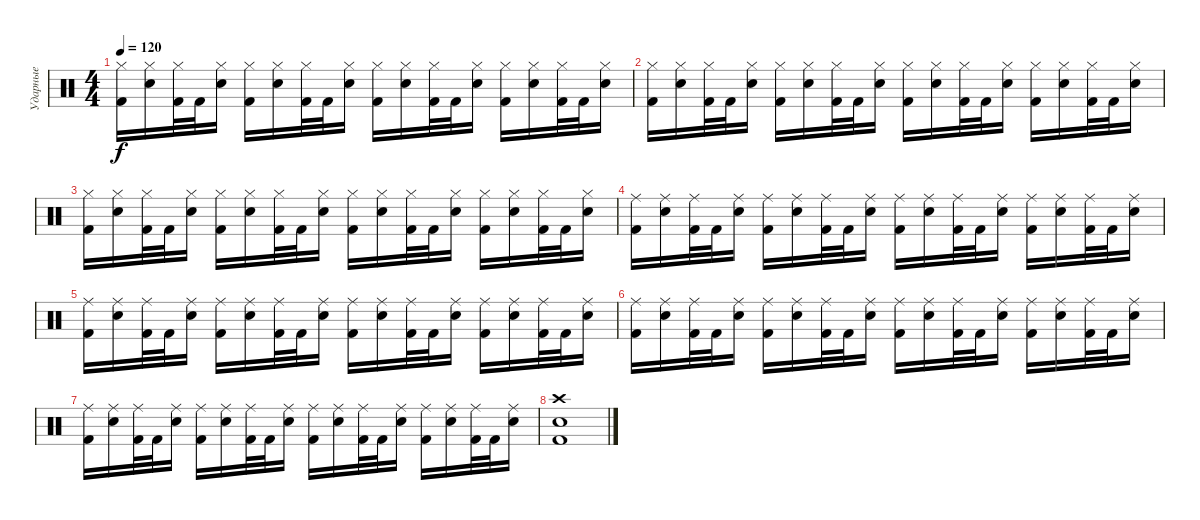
\track ("Ударные" "Ударные") {instrument percussion}
\staff {score}
\articulation defaults
\ts (4 4)
\tempo 120
\clef neutral
\ks c
("Hi-Hat (closed)" "Kick (hit) 2").16{dy f} ("Hi-Hat (closed)" "Electric Snare (hit)").16 ("Hi-Hat (closed)" "Kick (hit) 2").32 "Kick (hit) 2".32 ("Hi-Hat (closed)" "Electric Snare (hit)").16 ("Hi-Hat (closed)" "Kick (hit) 2").16 ("Hi-Hat (closed)" "Electric Snare (hit)").16 ("Hi-Hat (closed)" "Kick (hit) 2").32 "Kick (hit) 2".32 ("Hi-Hat (closed)" "Electric Snare (hit)").16 ("Hi-Hat (closed)" "Kick (hit) 2").16 ("Hi-Hat (closed)" "Electric Snare (hit)").16 ("Hi-Hat (closed)" "Kick (hit) 2").32 "Kick (hit) 2".32 ("Hi-Hat (closed)" "Electric Snare (hit)").16 ("Hi-Hat (closed)" "Kick (hit) 2").16 ("Hi-Hat (closed)" "Electric Snare (hit)").16 ("Hi-Hat (closed)" "Kick (hit) 2").32 "Kick (hit) 2".32 ("Hi-Hat (closed)" "Electric Snare (hit)").16 |
("Hi-Hat (closed)" "Kick (hit) 2").16 ("Hi-Hat (closed)" "Electric Snare (hit)").16 ("Hi-Hat (closed)" "Kick (hit) 2").32 "Kick (hit) 2".32 ("Hi-Hat (closed)" "Electric Snare (hit)").16 ("Hi-Hat (closed)" "Kick (hit) 2").16 ("Hi-Hat (closed)" "Electric Snare (hit)").16 ("Hi-Hat (closed)" "Kick (hit) 2").32 "Kick (hit) 2".32 ("Hi-Hat (closed)" "Electric Snare (hit)").16 ("Hi-Hat (closed)" "Kick (hit) 2").16 ("Hi-Hat (closed)" "Electric Snare (hit)").16 ("Hi-Hat (closed)" "Kick (hit) 2").32 "Kick (hit) 2".32 ("Hi-Hat (closed)" "Electric Snare (hit)").16 ("Hi-Hat (closed)" "Kick (hit) 2").16 ("Hi-Hat (closed)" "Electric Snare (hit)").16 ("Hi-Hat (closed)" "Kick (hit) 2").32 "Kick (hit) 2".32 ("Hi-Hat (closed)" "Electric Snare (hit)").16 |
("Hi-Hat (closed)" "Kick (hit) 2").16 ("Hi-Hat (closed)" "Electric Snare (hit)").16 ("Hi-Hat (closed)" "Kick (hit) 2").32 "Kick (hit) 2".32 ("Hi-Hat (closed)" "Electric Snare (hit)").16 ("Hi-Hat (closed)" "Kick (hit) 2").16 ("Hi-Hat (closed)" "Electric Snare (hit)").16 ("Hi-Hat (closed)" "Kick (hit) 2").32 "Kick (hit) 2".32 ("Hi-Hat (closed)" "Electric Snare (hit)").16 ("Hi-Hat (closed)" "Kick (hit) 2").16 ("Hi-Hat (closed)" "Electric Snare (hit)").16 ("Hi-Hat (closed)" "Kick (hit) 2").32 "Kick (hit) 2".32 ("Hi-Hat (closed)" "Electric Snare (hit)").16 ("Hi-Hat (closed)" "Kick (hit) 2").16 ("Hi-Hat (closed)" "Electric Snare (hit)").16 ("Hi-Hat (closed)" "Kick (hit) 2").32 "Kick (hit) 2".32 ("Hi-Hat (closed)" "Electric Snare (hit)").16 |
("Ride (middle)" "Kick (hit) 2").16 ("Ride (middle)" "Electric Snare (hit)").16 ("Ride (middle)" "Kick (hit) 2").32 "Kick (hit) 2".32 ("Ride (middle)" "Electric Snare (hit)").16 ("Ride (middle)" "Kick (hit) 2").16 ("Ride (middle)" "Electric Snare (hit)").16 ("Ride (middle)" "Kick (hit) 2").32 "Kick (hit) 2".32 ("Ride (middle)" "Electric Snare (hit)").16 ("Ride (middle)" "Kick (hit) 2").16 ("Ride (middle)" "Electric Snare (hit)").16 ("Ride (middle)" "Kick (hit) 2").32 "Kick (hit) 2".32 ("Ride (middle)" "Electric Snare (hit)").16 ("Ride (middle)" "Kick (hit) 2").16 ("Ride (middle)" "Electric Snare (hit)").16 ("Ride (middle)" "Kick (hit) 2").32 "Kick (hit) 2".32 ("Ride (middle)" "Electric Snare (hit)").16 |
("Ride (middle)" "Kick (hit) 2").16 ("Ride (middle)" "Electric Snare (hit)").16 ("Ride (middle)" "Kick (hit) 2").32 "Kick (hit) 2".32 ("Ride (middle)" "Electric Snare (hit)").16 ("Ride (middle)" "Kick (hit) 2").16 ("Ride (middle)" "Electric Snare (hit)").16 ("Ride (middle)" "Kick (hit) 2").32 "Kick (hit) 2".32 ("Ride (middle)" "Electric Snare (hit)").16 ("Ride (middle)" "Kick (hit) 2").16 ("Ride (middle)" "Electric Snare (hit)").16 ("Ride (middle)" "Kick (hit) 2").32 "Kick (hit) 2".32 ("Ride (middle)" "Electric Snare (hit)").16 ("Ride (middle)" "Kick (hit) 2").16 ("Ride (middle)" "Electric Snare (hit)").16 ("Ride (middle)" "Kick (hit) 2").32 "Kick (hit) 2".32 ("Ride (middle)" "Electric Snare (hit)").16 |
("Ride (middle)" "Kick (hit) 2").16 ("Ride (middle)" "Electric Snare (hit)").16 ("Ride (middle)" "Kick (hit) 2").32 "Kick (hit) 2".32 ("Ride (middle)" "Electric Snare (hit)").16 ("Ride (middle)" "Kick (hit) 2").16 ("Ride (middle)" "Electric Snare (hit)").16 ("Ride (middle)" "Kick (hit) 2").32 "Kick (hit) 2".32 ("Ride (middle)" "Electric Snare (hit)").16 ("Ride (middle)" "Kick (hit) 2").16 ("Ride (middle)" "Electric Snare (hit)").16 ("Ride (middle)" "Kick (hit) 2").32 "Kick (hit) 2".32 ("Ride (middle)" "Electric Snare (hit)").16 ("Ride (middle)" "Kick (hit) 2").16 ("Ride (middle)" "Electric Snare (hit)").16 ("Ride (middle)" "Kick (hit) 2").32 "Kick (hit) 2".32 ("Ride (middle)" "Electric Snare (hit)").16 |
("Ride (middle)" "Kick (hit) 2").16 ("Ride (middle)" "Electric Snare (hit)").16 ("Ride (middle)" "Kick (hit) 2").32 "Kick (hit) 2".32 ("Ride (middle)" "Electric Snare (hit)").16 ("Ride (middle)" "Kick (hit) 2").16 ("Ride (middle)" "Electric Snare (hit)").16 ("Ride (middle)" "Kick (hit) 2").32 "Kick (hit) 2".32 ("Ride (middle)" "Electric Snare (hit)").16 ("Ride (middle)" "Kick (hit) 2").16 ("Ride (middle)" "Electric Snare (hit)").16 ("Ride (middle)" "Kick (hit) 2").32 "Kick (hit) 2".32 ("Ride (middle)" "Electric Snare (hit)").16 ("Ride (middle)" "Kick (hit) 2").16 ("Ride (middle)" "Electric Snare (hit)").16 ("Ride (middle)" "Kick (hit) 2").32 "Kick (hit) 2".32 ("Ride (middle)" "Electric Snare (hit)").16 |
("Crash high (hit)" "Electric Snare (hit)" "Kick (hit) 2").1
